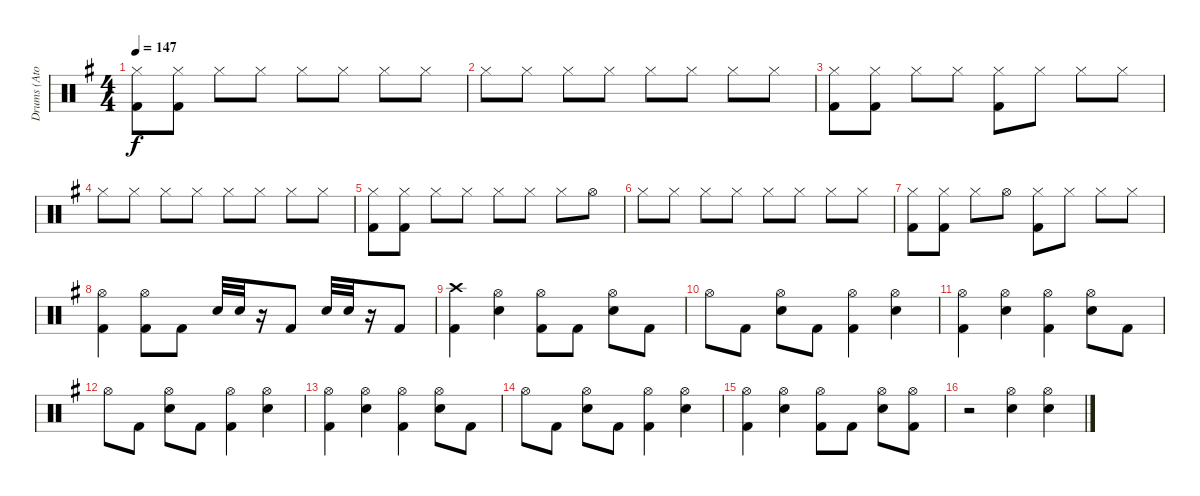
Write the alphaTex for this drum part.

\track ("Drums (Atom Willard)" "Drums (Ato") {instrument percussion}
\staff {score}
\articulation defaults
\ts (4 4)
\tempo 147
\clef neutral
\ks g
("Hi-Hat (closed)" "Kick (hit) 2").8{dy f} ("Hi-Hat (closed)" "Kick (hit) 2").8 "Hi-Hat (closed)".8 "Hi-Hat (closed)".8 "Hi-Hat (closed)".8 "Hi-Hat (closed)".8 "Hi-Hat (closed)".8 "Hi-Hat (closed)".8 |
"Hi-Hat (closed)".8 "Hi-Hat (closed)".8 "Hi-Hat (closed)".8 "Hi-Hat (closed)".8 "Hi-Hat (closed)".8 "Hi-Hat (closed)".8 "Hi-Hat (closed)".8 "Hi-Hat (closed)".8 |
("Hi-Hat (closed)" "Kick (hit) 2").8 ("Hi-Hat (closed)" "Kick (hit) 2").8 "Hi-Hat (closed)".8 "Hi-Hat (closed)".8 ("Hi-Hat (closed)" "Kick (hit) 2").8 "Hi-Hat (closed)".8 "Hi-Hat (closed)".8 "Hi-Hat (closed)".8 |
"Hi-Hat (closed)".8 "Hi-Hat (closed)".8 "Hi-Hat (closed)".8 "Hi-Hat (closed)".8 "Hi-Hat (closed)".8 "Hi-Hat (closed)".8 "Hi-Hat (closed)".8 "Hi-Hat (closed)".8 |
("Hi-Hat (closed)" "Kick (hit) 2").8 ("Hi-Hat (closed)" "Kick (hit) 2").8 "Hi-Hat (closed)".8 "Hi-Hat (closed)".8 "Hi-Hat (closed)".8 "Hi-Hat (closed)".8 "Hi-Hat (closed)".8 "Hi-Hat (open)".8 |
"Hi-Hat (closed)".8 "Hi-Hat (closed)".8 "Hi-Hat (closed)".8 "Hi-Hat (closed)".8 "Hi-Hat (closed)".8 "Hi-Hat (closed)".8 "Hi-Hat (closed)".8 "Hi-Hat (closed)".8 |
("Hi-Hat (closed)" "Kick (hit) 2").8 ("Hi-Hat (closed)" "Kick (hit) 2").8 "Hi-Hat (closed)".8 "Hi-Hat (open)".8 ("Hi-Hat (closed)" "Kick (hit) 2").8 "Hi-Hat (closed)".8 "Hi-Hat (closed)".8 "Hi-Hat (closed)".8 |
("Hi-Hat (open)" "Kick (hit) 2").4 ("Hi-Hat (open)" "Kick (hit) 2").8 "Kick (hit) 2".8 "Snare (hit) 2".32 "Snare (hit) 2".32 r.16 "Kick (hit) 2".8 "Snare (hit) 2".32 "Snare (hit) 2".32 r.16 "Kick (hit) 2".8 |
("Crash high (hit)" "Kick (hit) 2").4 ("Hi-Hat (open)" "Snare (hit) 2").4 ("Hi-Hat (open)" "Kick (hit) 2").8 "Kick (hit) 2".8 ("Hi-Hat (open)" "Snare (hit) 2").8 "Kick (hit) 2".8 |
"Hi-Hat (open)".8 "Kick (hit) 2".8 ("Hi-Hat (open)" "Snare (hit) 2").8 "Kick (hit) 2".8 ("Hi-Hat (open)" "Kick (hit) 2").4 ("Hi-Hat (open)" "Snare (hit) 2").4 |
("Hi-Hat (open)" "Kick (hit) 2").4 ("Hi-Hat (open)" "Snare (hit) 2").4 ("Hi-Hat (open)" "Kick (hit) 2").4 ("Hi-Hat (open)" "Snare (hit) 2").8 "Kick (hit) 2".8 |
"Hi-Hat (open)".8 "Kick (hit) 2".8 ("Hi-Hat (open)" "Snare (hit) 2").8 "Kick (hit) 2".8 ("Hi-Hat (open)" "Kick (hit) 2").4 ("Hi-Hat (open)" "Snare (hit) 2").4 |
("Hi-Hat (open)" "Kick (hit) 2").4 ("Hi-Hat (open)" "Snare (hit) 2").4 ("Hi-Hat (open)" "Kick (hit) 2").4 ("Hi-Hat (open)" "Snare (hit) 2").8 "Kick (hit) 2".8 |
"Hi-Hat (open)".8 "Kick (hit) 2".8 ("Hi-Hat (open)" "Snare (hit) 2").8 "Kick (hit) 2".8 ("Hi-Hat (open)" "Kick (hit) 2").4 ("Hi-Hat (open)" "Snare (hit) 2").4 |
("Hi-Hat (open)" "Kick (hit) 2").4 ("Hi-Hat (open)" "Snare (hit) 2").4 ("Hi-Hat (open)" "Kick (hit) 2").8 "Kick (hit) 2".8 ("Hi-Hat (open)" "Snare (hit) 2").8 ("Hi-Hat (open)" "Kick (hit) 2").8 |
r.2 ("Hi-Hat (open)" "Snare (hit) 2").4 ("Hi-Hat (open)" "Snare (hit) 2").4
